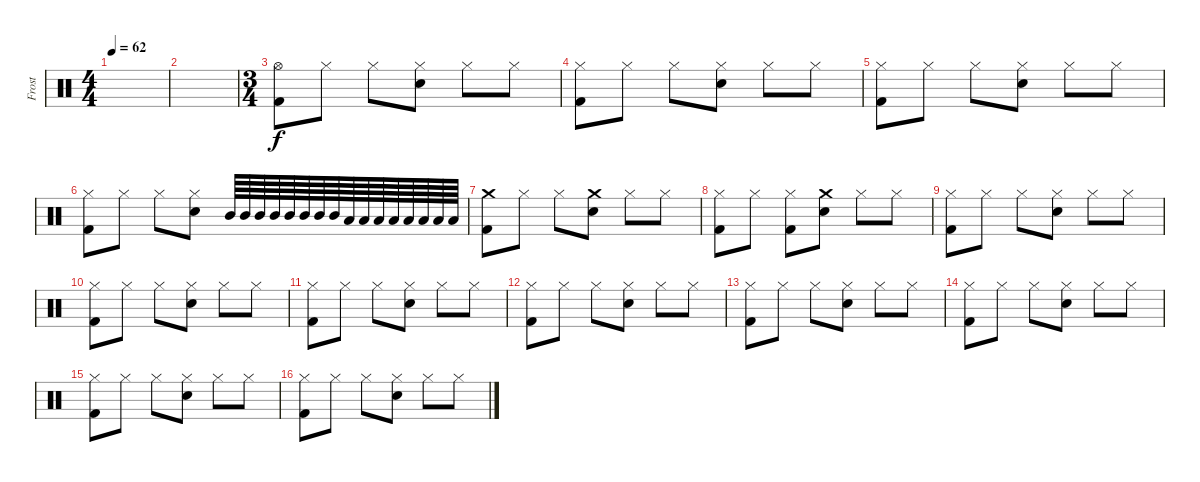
\track ("Frost" "Frost") {instrument percussion}
\staff {score}
\articulation defaults
\ts (4 4)
\tempo 62
\clef neutral
\ks c
|
|
\ts (3 4)
("Hi-Hat (open)" "Kick (hit) 2").8 "Hi-Hat (closed)".8 "Hi-Hat (closed)".8 ("Hi-Hat (closed)" "Electric Snare (hit)").8 "Hi-Hat (closed)".8 "Hi-Hat (closed)".8 |
("Hi-Hat (closed)" "Kick (hit) 2").8 "Hi-Hat (closed)".8 "Hi-Hat (closed)".8 ("Hi-Hat (closed)" "Electric Snare (hit)").8 "Hi-Hat (closed)".8 "Hi-Hat (closed)".8 |
("Hi-Hat (closed)" "Kick (hit) 2").8 "Hi-Hat (closed)".8 "Hi-Hat (closed)".8 ("Hi-Hat (closed)" "Electric Snare (hit)").8 "Hi-Hat (closed)".8 "Hi-Hat (closed)".8 |
("Hi-Hat (closed)" "Kick (hit) 2").8 "Hi-Hat (closed)".8 "Hi-Hat (closed)".8 ("Hi-Hat (closed)" "Electric Snare (hit)").8 "Mid Tom (hit)".64 "Mid Tom (hit)".64 "Mid Tom (hit)".64 "Mid Tom (hit)".64 "Mid Tom (hit)".64 "Mid Tom (hit)".64 "Mid Tom (hit)".64 "Mid Tom (hit)".64 "Low Tom (hit)".64 "Low Tom (hit)".64 "Low Tom (hit)".64 "Low Tom (hit)".64 "Low Tom (hit)".64 "Low Tom (hit)".64 "Low Tom (hit)".64 "Low Tom (hit)".64 |
("Crash medium (hit)" "Kick (hit) 2").8 "Hi-Hat (closed)".8 "Hi-Hat (closed)".8 ("Crash medium (hit)" "Electric Snare (hit)").8 "Hi-Hat (closed)".8 "Hi-Hat (closed)".8 |
("Hi-Hat (closed)" "Kick (hit) 2").8 "Hi-Hat (closed)".8 ("Hi-Hat (closed)" "Kick (hit) 2").8 ("Crash medium (hit)" "Electric Snare (hit)").8 "Hi-Hat (closed)".8 "Hi-Hat (closed)".8 |
("Hi-Hat (closed)" "Kick (hit) 2").8 "Hi-Hat (closed)".8 "Hi-Hat (closed)".8 ("Hi-Hat (closed)" "Electric Snare (hit)").8 "Hi-Hat (closed)".8 "Hi-Hat (closed)".8 |
("Hi-Hat (closed)" "Kick (hit) 2").8 "Hi-Hat (closed)".8 "Hi-Hat (closed)".8 ("Hi-Hat (closed)" "Electric Snare (hit)").8 "Hi-Hat (closed)".8 "Hi-Hat (closed)".8 |
("Hi-Hat (closed)" "Kick (hit) 2").8 "Hi-Hat (closed)".8 "Hi-Hat (closed)".8 ("Hi-Hat (closed)" "Electric Snare (hit)").8 "Hi-Hat (closed)".8 "Hi-Hat (closed)".8 |
("Hi-Hat (closed)" "Kick (hit) 2").8 "Hi-Hat (closed)".8 "Hi-Hat (closed)".8 ("Hi-Hat (closed)" "Electric Snare (hit)").8 "Hi-Hat (closed)".8 "Hi-Hat (closed)".8 |
("Hi-Hat (closed)" "Kick (hit) 2").8 "Hi-Hat (closed)".8 "Hi-Hat (closed)".8 ("Hi-Hat (closed)" "Electric Snare (hit)").8 "Hi-Hat (closed)".8 "Hi-Hat (closed)".8 |
("Hi-Hat (closed)" "Kick (hit) 2").8 "Hi-Hat (closed)".8 "Hi-Hat (closed)".8 ("Hi-Hat (closed)" "Electric Snare (hit)").8 "Hi-Hat (closed)".8 "Hi-Hat (closed)".8 |
("Hi-Hat (closed)" "Kick (hit) 2").8 "Hi-Hat (closed)".8 "Hi-Hat (closed)".8 ("Hi-Hat (closed)" "Electric Snare (hit)").8 "Hi-Hat (closed)".8 "Hi-Hat (closed)".8 |
("Hi-Hat (closed)" "Kick (hit) 2").8 "Hi-Hat (closed)".8 "Hi-Hat (closed)".8 ("Hi-Hat (closed)" "Electric Snare (hit)").8 "Hi-Hat (closed)".8 "Hi-Hat (closed)".8
